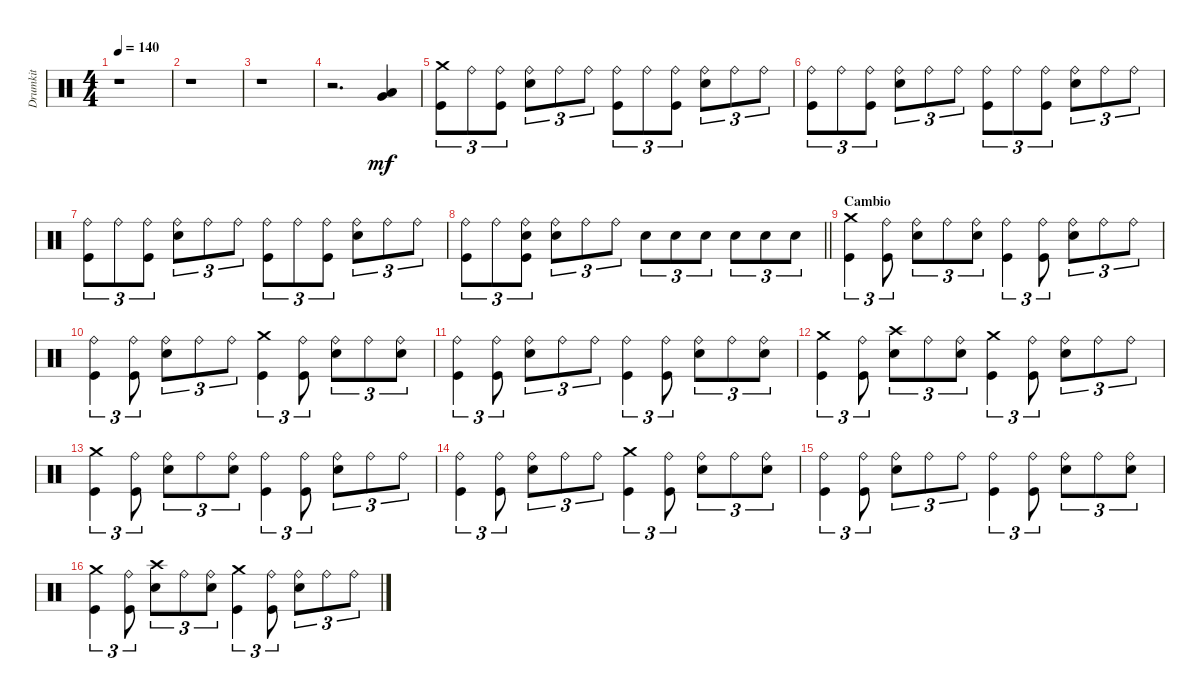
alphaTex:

\track ("Drumkit" "Drumkit") {instrument percussion}
\staff {score}
\articulation defaults
\ts (4 4)
\tempo 140
\clef neutral
\ks c
r.1{dy mf} |
r.1 |
r.1 |
r.2{d} ("Very Low Tom (hit)" "Low Floor Tom (hit)").4 |
("Crash medium (hit)" "Kick (hit)").8{tu (3 2)} "Ride (bell)".8{tu (3 2)} ("Ride (bell)" "Kick (hit)").8{tu (3 2)} ("Ride (bell)" "Snare (hit) 2").8{tu (3 2)} "Ride (bell)".8{tu (3 2)} "Ride (bell)".8{tu (3 2)} ("Ride (bell)" "Kick (hit)").8{tu (3 2)} "Ride (bell)".8{tu (3 2)} ("Ride (bell)" "Kick (hit)").8{tu (3 2)} ("Ride (bell)" "Snare (hit) 2").8{tu (3 2)} "Ride (bell)".8{tu (3 2)} "Ride (bell)".8{tu (3 2)} |
("Kick (hit)" "Ride (bell)").8{tu (3 2)} "Ride (bell)".8{tu (3 2)} ("Ride (bell)" "Kick (hit)").8{tu (3 2)} ("Ride (bell)" "Snare (hit) 2").8{tu (3 2)} "Ride (bell)".8{tu (3 2)} "Ride (bell)".8{tu (3 2)} ("Ride (bell)" "Kick (hit)").8{tu (3 2)} "Ride (bell)".8{tu (3 2)} ("Ride (bell)" "Kick (hit)").8{tu (3 2)} ("Ride (bell)" "Snare (hit) 2").8{tu (3 2)} "Ride (bell)".8{tu (3 2)} "Ride (bell)".8{tu (3 2)} |
("Kick (hit)" "Ride (bell)").8{tu (3 2)} "Ride (bell)".8{tu (3 2)} ("Ride (bell)" "Kick (hit)").8{tu (3 2)} ("Ride (bell)" "Snare (hit) 2").8{tu (3 2)} "Ride (bell)".8{tu (3 2)} "Ride (bell)".8{tu (3 2)} ("Ride (bell)" "Kick (hit)").8{tu (3 2)} "Ride (bell)".8{tu (3 2)} ("Ride (bell)" "Kick (hit)").8{tu (3 2)} ("Ride (bell)" "Snare (hit) 2").8{tu (3 2)} "Ride (bell)".8{tu (3 2)} "Ride (bell)".8{tu (3 2)} |
\barLineRight lightlight
("Kick (hit)" "Ride (bell)").8{tu (3 2)} "Ride (bell)".8{tu (3 2)} ("Ride (bell)" "Kick (hit)" "Snare (hit) 2").8{tu (3 2)} ("Ride (bell)" "Snare (hit) 2").8{tu (3 2)} "Ride (bell)".8{tu (3 2)} "Ride (bell)".8{tu (3 2)} "Snare (hit) 2".8{tu (3 2)} "Snare (hit) 2".8{tu (3 2)} "Snare (hit) 2".8{tu (3 2)} "Snare (hit) 2".8{tu (3 2)} "Snare (hit) 2".8{tu (3 2)} "Snare (hit) 2".8{tu (3 2)} |
\section ("" "Cambio")
("Crash medium (hit)" "Kick (hit)").4{tu (3 2)} ("Ride (bell)" "Kick (hit)").8{tu (3 2)} ("Ride (bell)" "Snare (hit) 2").8{tu (3 2)} "Ride (bell)".8{tu (3 2)} ("Ride (bell)" "Snare (hit) 2").8{tu (3 2)} ("Ride (bell)" "Kick (hit)").4{tu (3 2)} ("Ride (bell)" "Kick (hit)").8{tu (3 2)} ("Ride (bell)" "Snare (hit) 2").8{tu (3 2)} "Ride (bell)".8{tu (3 2)} "Ride (bell)".8{tu (3 2)} |
("Kick (hit)" "Ride (bell)").4{tu (3 2)} ("Ride (bell)" "Kick (hit)").8{tu (3 2)} ("Ride (bell)" "Snare (hit) 2").8{tu (3 2)} "Ride (bell)".8{tu (3 2)} "Ride (bell)".8{tu (3 2)} ("Kick (hit)" "Crash medium (hit)").4{tu (3 2)} ("Ride (bell)" "Kick (hit)").8{tu (3 2)} ("Ride (bell)" "Snare (hit) 2").8{tu (3 2)} "Ride (bell)".8{tu (3 2)} ("Ride (bell)" "Snare (hit) 2").8{tu (3 2)} |
("Kick (hit)" "Ride (bell)").4{tu (3 2)} ("Ride (bell)" "Kick (hit)").8{tu (3 2)} ("Ride (bell)" "Snare (hit) 2").8{tu (3 2)} "Ride (bell)".8{tu (3 2)} "Ride (bell)".8{tu (3 2)} ("Ride (bell)" "Kick (hit)").4{tu (3 2)} ("Ride (bell)" "Kick (hit)").8{tu (3 2)} ("Ride (bell)" "Snare (hit) 2").8{tu (3 2)} "Ride (bell)".8{tu (3 2)} ("Ride (bell)" "Snare (hit) 2").8{tu (3 2)} |
("Kick (hit)" "Crash medium (hit)").4{tu (3 2)} ("Ride (bell)" "Kick (hit)").8{tu (3 2)} ("Snare (hit) 2" "Crash high (hit)").8{tu (3 2)} "Ride (bell)".8{tu (3 2)} ("Ride (bell)" "Snare (hit) 2").8{tu (3 2)} ("Kick (hit)" "Crash medium (hit)").4{tu (3 2)} ("Ride (bell)" "Kick (hit)").8{tu (3 2)} ("Ride (bell)" "Snare (hit) 2").8{tu (3 2)} "Ride (bell)".8{tu (3 2)} "Ride (bell)".8{tu (3 2)} |
("Crash medium (hit)" "Kick (hit)").4{tu (3 2)} ("Ride (bell)" "Kick (hit)").8{tu (3 2)} ("Ride (bell)" "Snare (hit) 2").8{tu (3 2)} "Ride (bell)".8{tu (3 2)} ("Ride (bell)" "Snare (hit) 2").8{tu (3 2)} ("Ride (bell)" "Kick (hit)").4{tu (3 2)} ("Ride (bell)" "Kick (hit)").8{tu (3 2)} ("Ride (bell)" "Snare (hit) 2").8{tu (3 2)} "Ride (bell)".8{tu (3 2)} "Ride (bell)".8{tu (3 2)} |
("Kick (hit)" "Ride (bell)").4{tu (3 2)} ("Ride (bell)" "Kick (hit)").8{tu (3 2)} ("Ride (bell)" "Snare (hit) 2").8{tu (3 2)} "Ride (bell)".8{tu (3 2)} "Ride (bell)".8{tu (3 2)} ("Kick (hit)" "Crash medium (hit)").4{tu (3 2)} ("Ride (bell)" "Kick (hit)").8{tu (3 2)} ("Ride (bell)" "Snare (hit) 2").8{tu (3 2)} "Ride (bell)".8{tu (3 2)} ("Ride (bell)" "Snare (hit) 2").8{tu (3 2)} |
("Kick (hit)" "Ride (bell)").4{tu (3 2)} ("Ride (bell)" "Kick (hit)").8{tu (3 2)} ("Ride (bell)" "Snare (hit) 2").8{tu (3 2)} "Ride (bell)".8{tu (3 2)} "Ride (bell)".8{tu (3 2)} ("Ride (bell)" "Kick (hit)").4{tu (3 2)} ("Ride (bell)" "Kick (hit)").8{tu (3 2)} ("Ride (bell)" "Snare (hit) 2").8{tu (3 2)} "Ride (bell)".8{tu (3 2)} ("Ride (bell)" "Snare (hit) 2").8{tu (3 2)} |
("Kick (hit)" "Crash medium (hit)").4{tu (3 2)} ("Ride (bell)" "Kick (hit)").8{tu (3 2)} ("Snare (hit) 2" "Crash high (hit)").8{tu (3 2)} "Ride (bell)".8{tu (3 2)} ("Ride (bell)" "Snare (hit) 2").8{tu (3 2)} ("Kick (hit)" "Crash medium (hit)").4{tu (3 2)} ("Ride (bell)" "Kick (hit)").8{tu (3 2)} ("Ride (bell)" "Snare (hit) 2").8{tu (3 2)} "Ride (bell)".8{tu (3 2)} "Ride (bell)".8{tu (3 2)}
